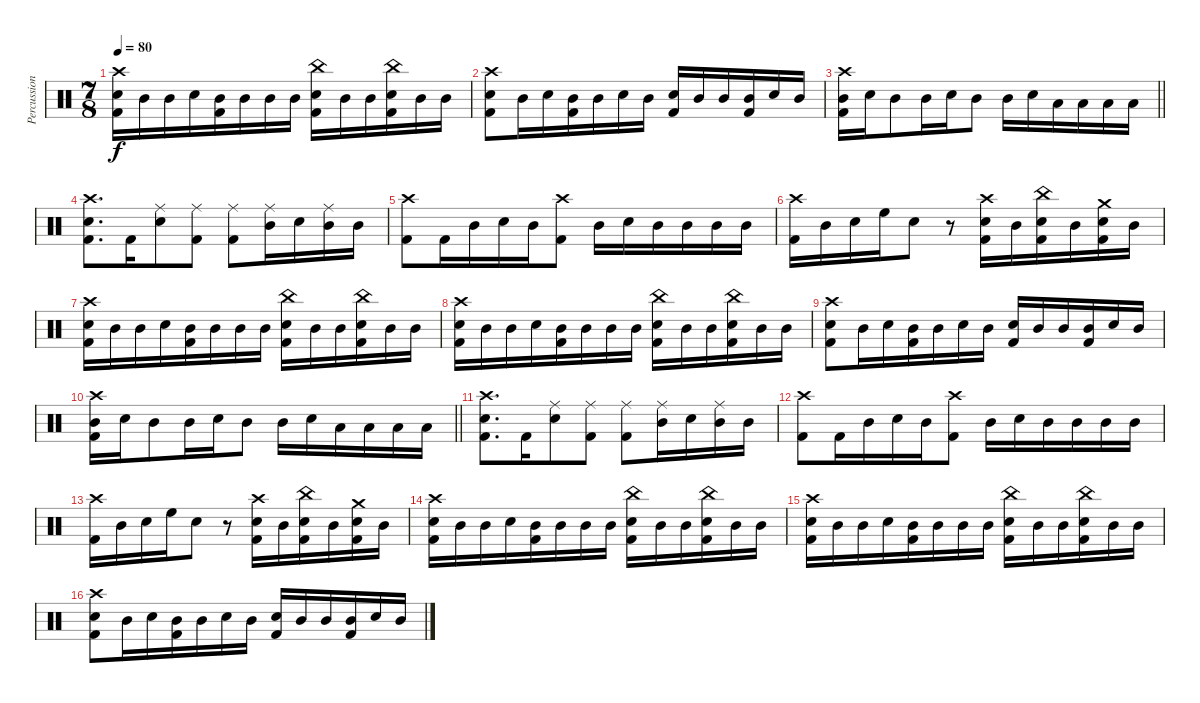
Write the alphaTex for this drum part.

\track ("Percussions" "Percussion") {instrument percussion}
\staff {score}
\articulation defaults
\ts (7 8)
\tempo 80
\clef neutral
\ks c
("Crash high (hit)" "Snare (hit) 2" "Kick (hit) 2").16{dy f} "Mid Tom (hit)".16 "Mid Tom (hit)".16 "Snare (hit) 2".16 ("Mid Tom (hit)" "Kick (hit) 2").16 "Mid Tom (hit)".16 "Mid Tom (hit)".16 "Mid Tom (hit)".16 ("China (hit)" "Snare (hit) 2" "Kick (hit) 2").16 "Mid Tom (hit)".16 "Mid Tom (hit)".16 ("China (hit)" "Snare (hit) 2" "Kick (hit) 2").16 "Mid Tom (hit)".16 "Mid Tom (hit)".16 |
("Crash high (hit)" "Snare (hit) 2" "Kick (hit) 2").8 "Mid Tom (hit)".16 "Snare (hit) 2".16 ("Mid Tom (hit)" "Kick (hit) 2").16 "Mid Tom (hit)".16 "Snare (hit) 2".16 "Mid Tom (hit)".16 ("Snare (hit) 2" "Kick (hit) 2").16 "Mid Tom (hit)".16 "Mid Tom (hit)".16 ("Mid Tom (hit)" "Kick (hit) 2").16 "Snare (hit) 2".16 "Mid Tom (hit)".16 |
\barLineRight lightlight
("Crash high (hit)" "Mid Tom (hit)" "Kick (hit) 2").16 "Snare (hit) 2".16 "Mid Tom (hit)".8 "Mid Tom (hit)".16 "Snare (hit) 2".16 "Mid Tom (hit)".8 "Mid Tom (hit)".16 "Snare (hit) 2".16 "Low Tom (hit)".16 "Low Tom (hit)".16 "Low Floor Tom (hit)".16 "Low Floor Tom (hit)".16 |
("Crash high (hit)" "Snare (hit) 2" "Kick (hit) 2").8{d volume 16} "Kick (hit) 2".16 ("Ride (middle)" "Snare (hit) 2").8 ("Ride (middle)" "Kick (hit) 2").8 ("Ride (middle)" "Kick (hit) 2").8 ("Ride (middle)" "Mid Tom (hit)").16 "Snare (hit) 2".16 ("Ride (middle)" "Mid Tom (hit)").16 "Mid Tom (hit)".16 |
("Crash high (hit)" "Kick (hit) 2").8 "Kick (hit) 2".16 "Mid Tom (hit)".16 "Snare (hit) 2".16 "Mid Tom (hit)".16 ("Crash high (hit)" "Kick (hit) 2").8 "Mid Tom (hit)".16 "Snare (hit) 2".16 "Mid Tom (hit)".16 "Mid Tom (hit)".16 "Mid Tom (hit)".16 "Mid Tom (hit)".16 |
("Crash high (hit)" "Kick (hit) 2").16 "Mid Tom (hit)".16 "Snare (hit) 2".16 "High Floor Tom (hit)".16 "Snare (hit) 2".8 r.8 ("Crash high (hit)" "Snare (hit) 2" "Kick (hit) 2").16 "Mid Tom (hit)".16 ("China (hit)" "Snare (hit) 2" "Kick (hit) 2").16 "Mid Tom (hit)".16 ("Crash medium (hit)" "Snare (hit) 2" "Kick (hit) 2").16 "Mid Tom (hit)".16 |
("Crash high (hit)" "Snare (hit) 2" "Kick (hit) 2").16 "Mid Tom (hit)".16 "Mid Tom (hit)".16 "Snare (hit) 2".16 ("Mid Tom (hit)" "Kick (hit) 2").16 "Mid Tom (hit)".16 "Mid Tom (hit)".16 "Mid Tom (hit)".16 ("China (hit)" "Snare (hit) 2" "Kick (hit) 2").16 "Mid Tom (hit)".16 "Mid Tom (hit)".16 ("China (hit)" "Snare (hit) 2" "Kick (hit) 2").16 "Mid Tom (hit)".16 "Mid Tom (hit)".16 |
("Crash high (hit)" "Snare (hit) 2" "Kick (hit) 2").16 "Mid Tom (hit)".16 "Mid Tom (hit)".16 "Snare (hit) 2".16 ("Mid Tom (hit)" "Kick (hit) 2").16 "Mid Tom (hit)".16 "Mid Tom (hit)".16 "Mid Tom (hit)".16 ("China (hit)" "Snare (hit) 2" "Kick (hit) 2").16 "Mid Tom (hit)".16 "Mid Tom (hit)".16 ("China (hit)" "Snare (hit) 2" "Kick (hit) 2").16 "Mid Tom (hit)".16 "Mid Tom (hit)".16 |
("Crash high (hit)" "Snare (hit) 2" "Kick (hit) 2").8 "Mid Tom (hit)".16 "Snare (hit) 2".16 ("Mid Tom (hit)" "Kick (hit) 2").16 "Mid Tom (hit)".16 "Snare (hit) 2".16 "Mid Tom (hit)".16 ("Snare (hit) 2" "Kick (hit) 2").16 "Mid Tom (hit)".16 "Mid Tom (hit)".16 ("Mid Tom (hit)" "Kick (hit) 2").16 "Snare (hit) 2".16 "Mid Tom (hit)".16 |
\barLineRight lightlight
("Crash high (hit)" "Mid Tom (hit)" "Kick (hit) 2").16 "Snare (hit) 2".16 "Mid Tom (hit)".8 "Mid Tom (hit)".16 "Snare (hit) 2".16 "Mid Tom (hit)".8 "Mid Tom (hit)".16 "Snare (hit) 2".16 "Low Tom (hit)".16 "Low Tom (hit)".16 "Low Floor Tom (hit)".16 "Low Floor Tom (hit)".16 |
("Crash high (hit)" "Snare (hit) 2" "Kick (hit) 2").8{d volume 16} "Kick (hit) 2".16 ("Ride (middle)" "Snare (hit) 2").8 ("Ride (middle)" "Kick (hit) 2").8 ("Ride (middle)" "Kick (hit) 2").8 ("Ride (middle)" "Mid Tom (hit)").16 "Snare (hit) 2".16 ("Ride (middle)" "Mid Tom (hit)").16 "Mid Tom (hit)".16 |
("Crash high (hit)" "Kick (hit) 2").8{volume 15} "Kick (hit) 2".16 "Mid Tom (hit)".16 "Snare (hit) 2".16 "Mid Tom (hit)".16 ("Crash high (hit)" "Kick (hit) 2").8 "Mid Tom (hit)".16 "Snare (hit) 2".16 "Mid Tom (hit)".16 "Mid Tom (hit)".16 "Mid Tom (hit)".16 "Mid Tom (hit)".16 |
("Crash high (hit)" "Kick (hit) 2").16{volume 14} "Mid Tom (hit)".16 "Snare (hit) 2".16 "High Floor Tom (hit)".16 "Snare (hit) 2".8 r.8 ("Crash high (hit)" "Snare (hit) 2" "Kick (hit) 2").16 "Mid Tom (hit)".16 ("China (hit)" "Snare (hit) 2" "Kick (hit) 2").16 "Mid Tom (hit)".16 ("Crash medium (hit)" "Snare (hit) 2" "Kick (hit) 2").16 "Mid Tom (hit)".16 |
("Crash high (hit)" "Snare (hit) 2" "Kick (hit) 2").16{volume 13} "Mid Tom (hit)".16 "Mid Tom (hit)".16 "Snare (hit) 2".16 ("Mid Tom (hit)" "Kick (hit) 2").16 "Mid Tom (hit)".16 "Mid Tom (hit)".16 "Mid Tom (hit)".16 ("China (hit)" "Snare (hit) 2" "Kick (hit) 2").16 "Mid Tom (hit)".16 "Mid Tom (hit)".16 ("China (hit)" "Snare (hit) 2" "Kick (hit) 2").16 "Mid Tom (hit)".16 "Mid Tom (hit)".16 |
("Crash high (hit)" "Snare (hit) 2" "Kick (hit) 2").16{volume 12} "Mid Tom (hit)".16 "Mid Tom (hit)".16 "Snare (hit) 2".16 ("Mid Tom (hit)" "Kick (hit) 2").16 "Mid Tom (hit)".16 "Mid Tom (hit)".16 "Mid Tom (hit)".16 ("China (hit)" "Snare (hit) 2" "Kick (hit) 2").16 "Mid Tom (hit)".16 "Mid Tom (hit)".16 ("China (hit)" "Snare (hit) 2" "Kick (hit) 2").16 "Mid Tom (hit)".16 "Mid Tom (hit)".16 |
("Crash high (hit)" "Snare (hit) 2" "Kick (hit) 2").8{volume 11} "Mid Tom (hit)".16 "Snare (hit) 2".16 ("Mid Tom (hit)" "Kick (hit) 2").16 "Mid Tom (hit)".16 "Snare (hit) 2".16 "Mid Tom (hit)".16 ("Snare (hit) 2" "Kick (hit) 2").16 "Mid Tom (hit)".16 "Mid Tom (hit)".16 ("Mid Tom (hit)" "Kick (hit) 2").16 "Snare (hit) 2".16 "Mid Tom (hit)".16
